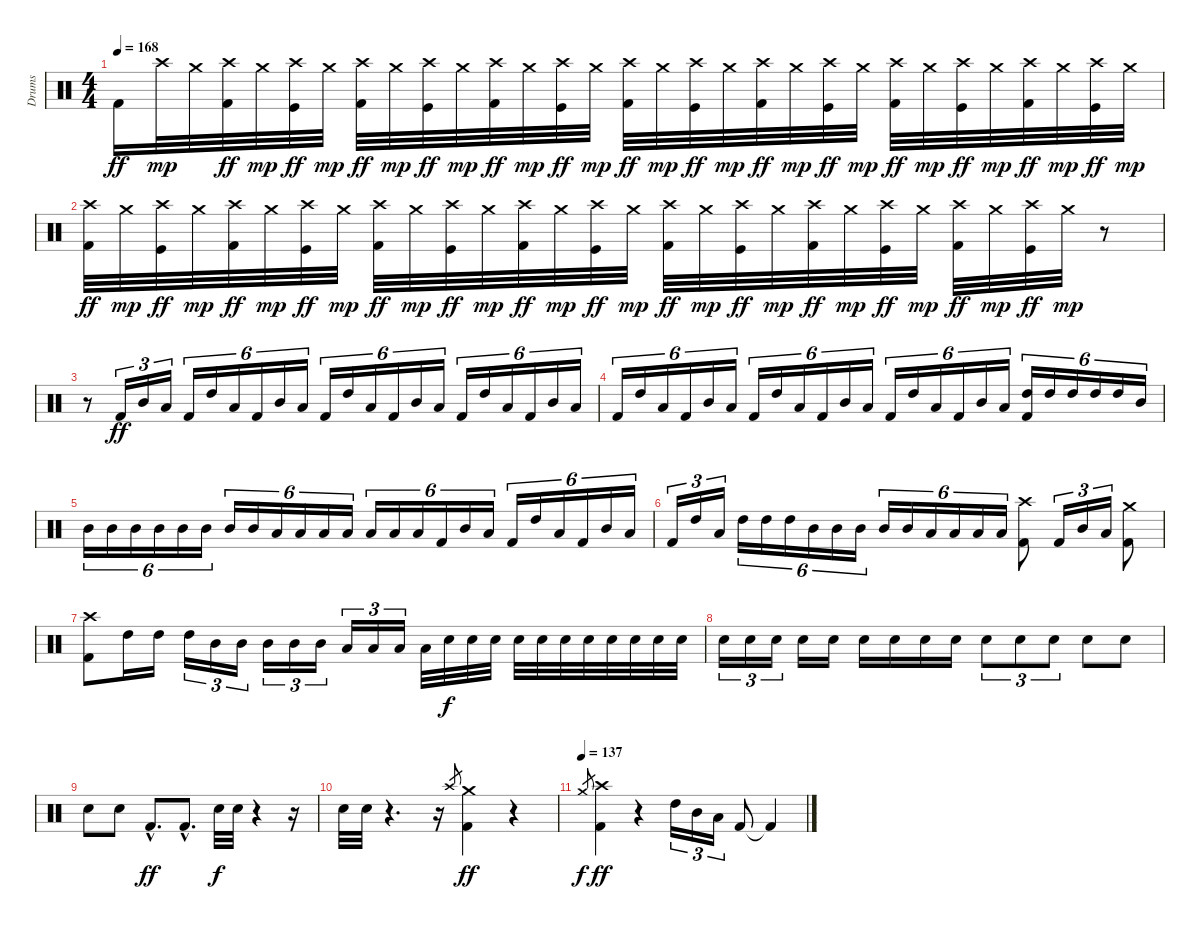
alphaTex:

\track ("Drums" "Drums") {instrument percussion}
\staff {score}
\articulation defaults
\ts (4 4)
\tempo 168
\clef neutral
\ks c "Kick (hit) 2".16{dy ff} "Crash high (hit)".32{dy mp} "Crash medium (hit)".32
("Crash high (hit)" "Kick (hit) 2").32{dy ff} "Crash medium (hit)".32{dy mp} ("Crash high (hit)" "Kick (hit)").32{dy ff} "Crash medium (hit)".32{dy mp} ("Crash high (hit)" "Kick (hit) 2").32{dy ff} "Crash medium (hit)".32{dy mp} ("Crash high (hit)" "Kick (hit)").32{dy ff} "Crash medium (hit)".32{dy mp} ("Crash high (hit)" "Kick (hit) 2").32{dy ff} "Crash medium (hit)".32{dy mp} ("Crash high (hit)" "Kick (hit)").32{dy ff} "Crash medium (hit)".32{dy mp} ("Crash high (hit)" "Kick (hit) 2").32{dy ff} "Crash medium (hit)".32{dy mp} ("Crash high (hit)" "Kick (hit)").32{dy ff} "Crash medium (hit)".32{dy mp} ("Crash high (hit)" "Kick (hit) 2").32{dy ff} "Crash medium (hit)".32{dy mp} ("Crash high (hit)" "Kick (hit)").32{dy ff} "Crash medium (hit)".32{dy mp} ("Crash high (hit)" "Kick (hit) 2").32{dy ff} "Crash medium (hit)".32{dy mp} ("Crash high (hit)" "Kick (hit)").32{dy ff} "Crash medium (hit)".32{dy mp} ("Crash high (hit)" "Kick (hit) 2").32{dy ff} "Crash medium (hit)".32{dy mp} ("Crash high (hit)" "Kick (hit)").32{dy ff} "Crash medium (hit)".32{dy mp} |
("Crash high (hit)" "Kick (hit) 2").32{dy ff} "Crash medium (hit)".32{dy mp} ("Crash high (hit)" "Kick (hit)").32{dy ff} "Crash medium (hit)".32{dy mp} ("Crash high (hit)" "Kick (hit) 2").32{dy ff} "Crash medium (hit)".32{dy mp} ("Crash high (hit)" "Kick (hit)").32{dy ff} "Crash medium (hit)".32{dy mp} ("Crash high (hit)" "Kick (hit) 2").32{dy ff} "Crash medium (hit)".32{dy mp} ("Crash high (hit)" "Kick (hit)").32{dy ff} "Crash medium (hit)".32{dy mp} ("Crash high (hit)" "Kick (hit) 2").32{dy ff} "Crash medium (hit)".32{dy mp} ("Crash high (hit)" "Kick (hit)").32{dy ff} "Crash medium (hit)".32{dy mp} ("Crash high (hit)" "Kick (hit) 2").32{dy ff} "Crash medium (hit)".32{dy mp} ("Crash high (hit)" "Kick (hit)").32{dy ff} "Crash medium (hit)".32{dy mp} ("Crash high (hit)" "Kick (hit) 2").32{dy ff} "Crash medium (hit)".32{dy mp} ("Crash high (hit)" "Kick (hit)").32{dy ff} "Crash medium (hit)".32{dy mp} ("Crash high (hit)" "Kick (hit) 2").32{dy ff} "Crash medium (hit)".32{dy mp} ("Crash high (hit)" "Kick (hit)").32{dy ff} "Crash medium (hit)".32{dy mp} r.8 |
r.8 "Kick (hit) 2".16{tu (3 2) dy ff} "Mid Tom (hit)".16{tu (3 2)} "Low Tom (hit)".16{tu (3 2)} "Kick (hit) 2".16{tu (6 4)} "High Tom (hit)".16{tu (6 4)} "Low Tom (hit)".16{tu (6 4)} "Kick (hit) 2".16{tu (6 4)} "Mid Tom (hit)".16{tu (6 4)} "Low Tom (hit)".16{tu (6 4)} "Kick (hit) 2".16{tu (6 4)} "High Tom (hit)".16{tu (6 4)} "Low Tom (hit)".16{tu (6 4)} "Kick (hit) 2".16{tu (6 4)} "Mid Tom (hit)".16{tu (6 4)} "Low Tom (hit)".16{tu (6 4)} "Kick (hit) 2".16{tu (6 4)} "High Tom (hit)".16{tu (6 4)} "Low Tom (hit)".16{tu (6 4)} "Kick (hit) 2".16{tu (6 4)} "Mid Tom (hit)".16{tu (6 4)} "Low Tom (hit)".16{tu (6 4)} |
"Kick (hit) 2".16{tu (6 4)} "High Tom (hit)".16{tu (6 4)} "Low Tom (hit)".16{tu (6 4)} "Kick (hit) 2".16{tu (6 4)} "Mid Tom (hit)".16{tu (6 4)} "Low Tom (hit)".16{tu (6 4)} "Kick (hit) 2".16{tu (6 4)} "High Tom (hit)".16{tu (6 4)} "Low Tom (hit)".16{tu (6 4)} "Kick (hit) 2".16{tu (6 4)} "Mid Tom (hit)".16{tu (6 4)} "Low Tom (hit)".16{tu (6 4)} "Kick (hit) 2".16{tu (6 4)} "High Tom (hit)".16{tu (6 4)} "Low Tom (hit)".16{tu (6 4)} "Kick (hit) 2".16{tu (6 4)} "Mid Tom (hit)".16{tu (6 4)} "Low Tom (hit)".16{tu (6 4)} ("High Tom (hit)" "Kick (hit) 2").16{tu (6 4)} "High Tom (hit)".16{tu (6 4)} "High Tom (hit)".16{tu (6 4)} "High Tom (hit)".16{tu (6 4)} "High Tom (hit)".16{tu (6 4)} "Mid Tom (hit)".16{tu (6 4)} |
"Mid Tom (hit)".16{tu (6 4)} "Mid Tom (hit)".16{tu (6 4)} "Mid Tom (hit)".16{tu (6 4)} "Mid Tom (hit)".16{tu (6 4)} "Mid Tom (hit)".16{tu (6 4)} "Mid Tom (hit)".16{tu (6 4)} "Mid Tom (hit)".16{tu (6 4)} "Mid Tom (hit)".16{tu (6 4)} "Low Tom (hit)".16{tu (6 4)} "Low Tom (hit)".16{tu (6 4)} "Low Tom (hit)".16{tu (6 4)} "Low Tom (hit)".16{tu (6 4)} "Low Tom (hit)".16{tu (6 4)} "Low Tom (hit)".16{tu (6 4)} "Low Tom (hit)".16{tu (6 4)} "Kick (hit) 2".16{tu (6 4)} "Mid Tom (hit)".16{tu (6 4)} "Low Tom (hit)".16{tu (6 4)} "Kick (hit) 2".16{tu (6 4)} "High Tom (hit)".16{tu (6 4)} "Low Tom (hit)".16{tu (6 4)} "Kick (hit) 2".16{tu (6 4)} "Mid Tom (hit)".16{tu (6 4)} "Low Tom (hit)".16{tu (6 4)} |
"Kick (hit) 2".16{tu (3 2)} "High Tom (hit)".16{tu (3 2)} "Low Tom (hit)".16{tu (3 2)} "High Tom (hit)".16{tu (6 4)} "High Tom (hit)".16{tu (6 4)} "High Tom (hit)".16{tu (6 4)} "Mid Tom (hit)".16{tu (6 4)} "Mid Tom (hit)".16{tu (6 4)} "Mid Tom (hit)".16{tu (6 4)} "Mid Tom (hit)".16{tu (6 4)} "Mid Tom (hit)".16{tu (6 4)} "Low Tom (hit)".16{tu (6 4)} "Low Tom (hit)".16{tu (6 4)} "Low Tom (hit)".16{tu (6 4)} "Low Tom (hit)".16{tu (6 4)} ("Crash high (hit)" "Kick (hit) 2").8 "Kick (hit) 2".16{tu (3 2)} "Mid Tom (hit)".16{tu (3 2)} "Low Tom (hit)".16{tu (3 2)} ("Crash medium (hit)" "Kick (hit) 2").8 |
("Crash high (hit)" "Kick (hit) 2").8 "High Tom (hit)".16 "High Tom (hit)".16 "High Tom (hit)".16{tu (3 2)} "Mid Tom (hit)".16{tu (3 2)} "Mid Tom (hit)".16{tu (3 2)} "Mid Tom (hit)".16{tu (3 2)} "Mid Tom (hit)".16{tu (3 2)} "Mid Tom (hit)".16{tu (3 2)} "Low Tom (hit)".16{tu (3 2)} "Low Tom (hit)".16{tu (3 2)} "Low Tom (hit)".16{tu (3 2)} "Low Tom (hit)".32 "Electric Snare (hit)".32{dy f} "Electric Snare (hit)".32 "Electric Snare (hit)".32 "Electric Snare (hit)".32 "Electric Snare (hit)".32 "Electric Snare (hit)".32 "Electric Snare (hit)".32 "Electric Snare (hit)".32 "Electric Snare (hit)".32 "Electric Snare (hit)".32 "Electric Snare (hit)".32 |
"Electric Snare (hit)".16{tu (3 2)} "Electric Snare (hit)".16{tu (3 2)} "Electric Snare (hit)".16{tu (3 2)} "Electric Snare (hit)".16 "Electric Snare (hit)".16 "Electric Snare (hit)".16 "Electric Snare (hit)".16 "Electric Snare (hit)".16 "Electric Snare (hit)".16 "Electric Snare (hit)".8{tu (3 2)} "Electric Snare (hit)".8{tu (3 2)} "Electric Snare (hit)".8{tu (3 2)} "Electric Snare (hit)".8 "Electric Snare (hit)".8 |
"Electric Snare (hit)".8 "Electric Snare (hit)".8 "Kick (hit) 2"{hac}.8{d dy ff} "Kick (hit) 2"{hac}.8{d} "Electric Snare (hit)".32{dy f} "Electric Snare (hit)".32 r.4 r.16 |
"Electric Snare (hit)".32 "Electric Snare (hit)".32 r.4{d} r.16 "Crash high (hit)".8{gr} ("Crash medium (hit)" "Kick (hit) 2").4{dy ff} r.4 |
\tempo (137)
"Crash medium (hit)".8{gr dy f} ("Crash high (hit)" "Kick (hit) 2").4{dy ff} r.4 "High Tom (hit)".16{tu (3 2)} "Mid Tom (hit)".16{tu (3 2)} "Low Tom (hit)".16{tu (3 2)} "Kick (hit) 2".8 "Kick (hit) 2"{t}.4
